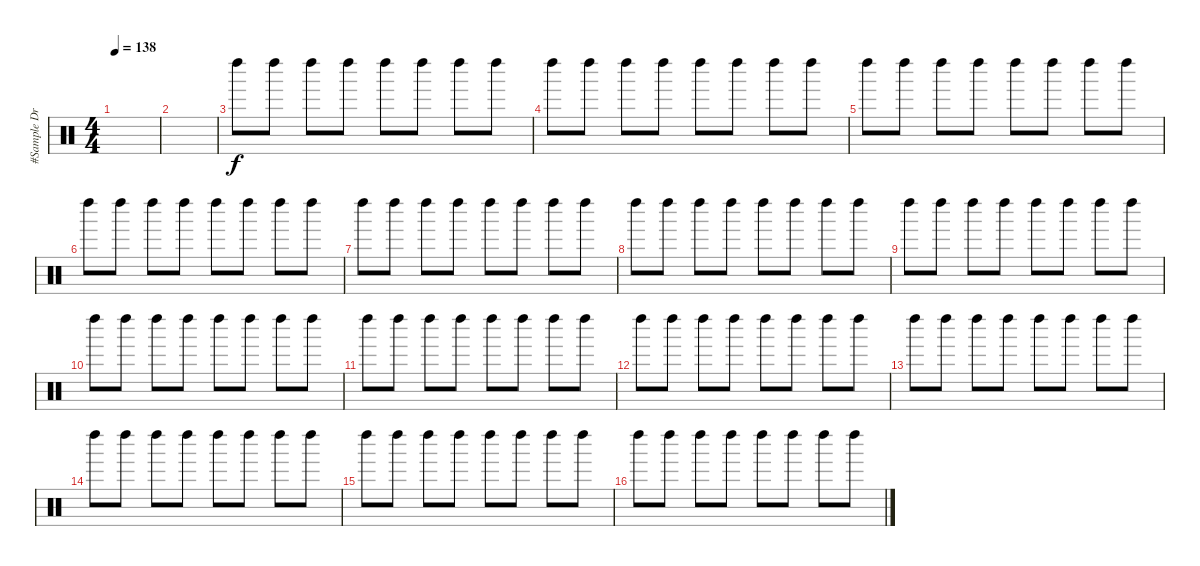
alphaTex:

\track ("#Sample Drums" "#Sample Dr") {instrument percussion}
\staff {score}
\articulation defaults
\ts (4 4)
\tempo 138
\clef neutral
\ks c
|
|
"Left Maraca (hit)".8{dy f} "Left Maraca (hit)".8 "Left Maraca (hit)".8 "Left Maraca (hit)".8 "Left Maraca (hit)".8 "Left Maraca (hit)".8 "Left Maraca (hit)".8 "Left Maraca (hit)".8 |
"Left Maraca (hit)".8 "Left Maraca (hit)".8 "Left Maraca (hit)".8 "Left Maraca (hit)".8 "Left Maraca (hit)".8 "Left Maraca (hit)".8 "Left Maraca (hit)".8 "Left Maraca (hit)".8 |
"Left Maraca (hit)".8 "Left Maraca (hit)".8 "Left Maraca (hit)".8 "Left Maraca (hit)".8 "Left Maraca (hit)".8 "Left Maraca (hit)".8 "Left Maraca (hit)".8 "Left Maraca (hit)".8 |
"Left Maraca (hit)".8 "Left Maraca (hit)".8 "Left Maraca (hit)".8 "Left Maraca (hit)".8 "Left Maraca (hit)".8 "Left Maraca (hit)".8 "Left Maraca (hit)".8 "Left Maraca (hit)".8 |
"Left Maraca (hit)".8 "Left Maraca (hit)".8 "Left Maraca (hit)".8 "Left Maraca (hit)".8 "Left Maraca (hit)".8 "Left Maraca (hit)".8 "Left Maraca (hit)".8 "Left Maraca (hit)".8 |
"Left Maraca (hit)".8 "Left Maraca (hit)".8 "Left Maraca (hit)".8 "Left Maraca (hit)".8 "Left Maraca (hit)".8 "Left Maraca (hit)".8 "Left Maraca (hit)".8 "Left Maraca (hit)".8 |
"Left Maraca (hit)".8 "Left Maraca (hit)".8 "Left Maraca (hit)".8 "Left Maraca (hit)".8 "Left Maraca (hit)".8 "Left Maraca (hit)".8 "Left Maraca (hit)".8 "Left Maraca (hit)".8 |
"Left Maraca (hit)".8 "Left Maraca (hit)".8 "Left Maraca (hit)".8 "Left Maraca (hit)".8 "Left Maraca (hit)".8 "Left Maraca (hit)".8 "Left Maraca (hit)".8 "Left Maraca (hit)".8 |
"Left Maraca (hit)".8 "Left Maraca (hit)".8 "Left Maraca (hit)".8 "Left Maraca (hit)".8 "Left Maraca (hit)".8 "Left Maraca (hit)".8 "Left Maraca (hit)".8 "Left Maraca (hit)".8 |
"Left Maraca (hit)".8 "Left Maraca (hit)".8 "Left Maraca (hit)".8 "Left Maraca (hit)".8 "Left Maraca (hit)".8 "Left Maraca (hit)".8 "Left Maraca (hit)".8 "Left Maraca (hit)".8 |
"Left Maraca (hit)".8 "Left Maraca (hit)".8 "Left Maraca (hit)".8 "Left Maraca (hit)".8 "Left Maraca (hit)".8 "Left Maraca (hit)".8 "Left Maraca (hit)".8 "Left Maraca (hit)".8 |
"Left Maraca (hit)".8 "Left Maraca (hit)".8 "Left Maraca (hit)".8 "Left Maraca (hit)".8 "Left Maraca (hit)".8 "Left Maraca (hit)".8 "Left Maraca (hit)".8 "Left Maraca (hit)".8 |
"Left Maraca (hit)".8 "Left Maraca (hit)".8 "Left Maraca (hit)".8 "Left Maraca (hit)".8 "Left Maraca (hit)".8 "Left Maraca (hit)".8 "Left Maraca (hit)".8 "Left Maraca (hit)".8 |
"Left Maraca (hit)".8 "Left Maraca (hit)".8 "Left Maraca (hit)".8 "Left Maraca (hit)".8 "Left Maraca (hit)".8 "Left Maraca (hit)".8 "Left Maraca (hit)".8 "Left Maraca (hit)".8
